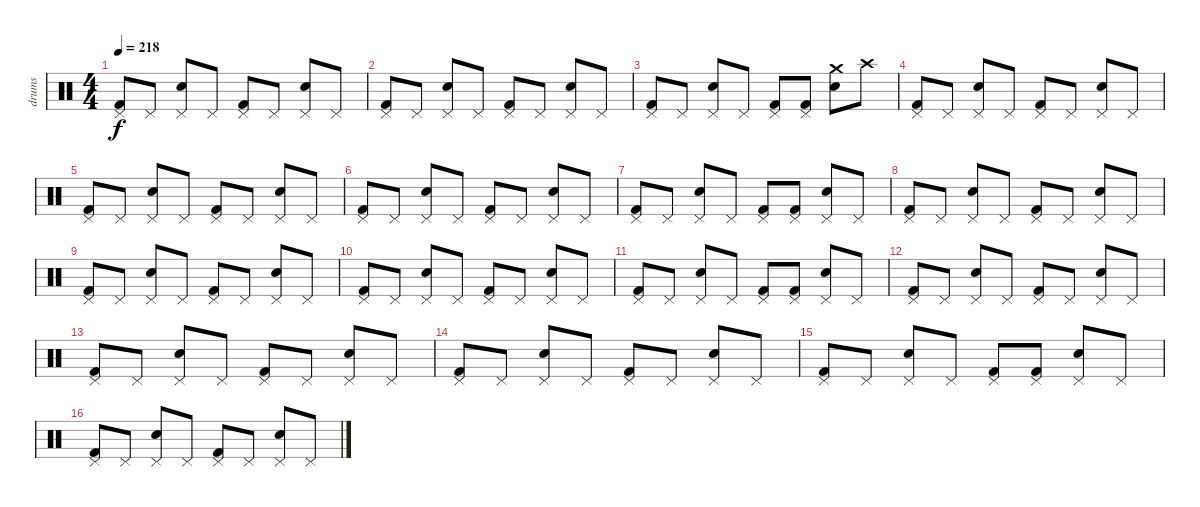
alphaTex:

\track ("drums" "drums") {instrument percussion}
\staff {score}
\articulation defaults
\ts (4 4)
\tempo 218
\clef neutral
\ks c
("Kick (hit) 2" "Pedal Hi-Hat (hit)").8{dy f} "Pedal Hi-Hat (hit)".8 ("Snare (hit) 2" "Pedal Hi-Hat (hit)").8 "Pedal Hi-Hat (hit)".8 ("Kick (hit) 2" "Pedal Hi-Hat (hit)").8 "Pedal Hi-Hat (hit)".8 ("Snare (hit) 2" "Pedal Hi-Hat (hit)").8 "Pedal Hi-Hat (hit)".8 |
("Kick (hit) 2" "Pedal Hi-Hat (hit)").8 "Pedal Hi-Hat (hit)".8 ("Snare (hit) 2" "Pedal Hi-Hat (hit)").8 "Pedal Hi-Hat (hit)".8 ("Kick (hit) 2" "Pedal Hi-Hat (hit)").8 "Pedal Hi-Hat (hit)".8 ("Snare (hit) 2" "Pedal Hi-Hat (hit)").8 "Pedal Hi-Hat (hit)".8 |
("Kick (hit) 2" "Pedal Hi-Hat (hit)").8 "Pedal Hi-Hat (hit)".8 ("Snare (hit) 2" "Pedal Hi-Hat (hit)").8 "Pedal Hi-Hat (hit)".8 ("Kick (hit) 2" "Pedal Hi-Hat (hit)").8 ("Kick (hit) 2" "Pedal Hi-Hat (hit)").8 ("Snare (hit) 2" "Crash medium (hit)").8 "Crash high (hit)".8 |
("Kick (hit) 2" "Pedal Hi-Hat (hit)").8 "Pedal Hi-Hat (hit)".8 ("Snare (hit) 2" "Pedal Hi-Hat (hit)").8 "Pedal Hi-Hat (hit)".8 ("Kick (hit) 2" "Pedal Hi-Hat (hit)").8 "Pedal Hi-Hat (hit)".8 ("Snare (hit) 2" "Pedal Hi-Hat (hit)").8 "Pedal Hi-Hat (hit)".8 |
("Kick (hit) 2" "Pedal Hi-Hat (hit)").8 "Pedal Hi-Hat (hit)".8 ("Snare (hit) 2" "Pedal Hi-Hat (hit)").8 "Pedal Hi-Hat (hit)".8 ("Kick (hit) 2" "Pedal Hi-Hat (hit)").8 "Pedal Hi-Hat (hit)".8 ("Snare (hit) 2" "Pedal Hi-Hat (hit)").8 "Pedal Hi-Hat (hit)".8 |
("Kick (hit) 2" "Pedal Hi-Hat (hit)").8 "Pedal Hi-Hat (hit)".8 ("Snare (hit) 2" "Pedal Hi-Hat (hit)").8 "Pedal Hi-Hat (hit)".8 ("Kick (hit) 2" "Pedal Hi-Hat (hit)").8 "Pedal Hi-Hat (hit)".8 ("Snare (hit) 2" "Pedal Hi-Hat (hit)").8 "Pedal Hi-Hat (hit)".8 |
("Kick (hit) 2" "Pedal Hi-Hat (hit)").8 "Pedal Hi-Hat (hit)".8 ("Snare (hit) 2" "Pedal Hi-Hat (hit)").8 "Pedal Hi-Hat (hit)".8 ("Kick (hit) 2" "Pedal Hi-Hat (hit)").8 ("Kick (hit) 2" "Pedal Hi-Hat (hit)").8 ("Snare (hit) 2" "Pedal Hi-Hat (hit)").8 "Pedal Hi-Hat (hit)".8 |
("Kick (hit) 2" "Pedal Hi-Hat (hit)").8 "Pedal Hi-Hat (hit)".8 ("Snare (hit) 2" "Pedal Hi-Hat (hit)").8 "Pedal Hi-Hat (hit)".8 ("Kick (hit) 2" "Pedal Hi-Hat (hit)").8 "Pedal Hi-Hat (hit)".8 ("Snare (hit) 2" "Pedal Hi-Hat (hit)").8 "Pedal Hi-Hat (hit)".8 |
("Kick (hit) 2" "Pedal Hi-Hat (hit)").8 "Pedal Hi-Hat (hit)".8 ("Snare (hit) 2" "Pedal Hi-Hat (hit)").8 "Pedal Hi-Hat (hit)".8 ("Kick (hit) 2" "Pedal Hi-Hat (hit)").8 "Pedal Hi-Hat (hit)".8 ("Snare (hit) 2" "Pedal Hi-Hat (hit)").8 "Pedal Hi-Hat (hit)".8 |
("Kick (hit) 2" "Pedal Hi-Hat (hit)").8 "Pedal Hi-Hat (hit)".8 ("Snare (hit) 2" "Pedal Hi-Hat (hit)").8 "Pedal Hi-Hat (hit)".8 ("Kick (hit) 2" "Pedal Hi-Hat (hit)").8 "Pedal Hi-Hat (hit)".8 ("Snare (hit) 2" "Pedal Hi-Hat (hit)").8 "Pedal Hi-Hat (hit)".8 |
("Kick (hit) 2" "Pedal Hi-Hat (hit)").8 "Pedal Hi-Hat (hit)".8 ("Snare (hit) 2" "Pedal Hi-Hat (hit)").8 "Pedal Hi-Hat (hit)".8 ("Kick (hit) 2" "Pedal Hi-Hat (hit)").8 ("Kick (hit) 2" "Pedal Hi-Hat (hit)").8 ("Snare (hit) 2" "Pedal Hi-Hat (hit)").8 "Pedal Hi-Hat (hit)".8 |
("Kick (hit) 2" "Pedal Hi-Hat (hit)").8 "Pedal Hi-Hat (hit)".8 ("Snare (hit) 2" "Pedal Hi-Hat (hit)").8 "Pedal Hi-Hat (hit)".8 ("Kick (hit) 2" "Pedal Hi-Hat (hit)").8 "Pedal Hi-Hat (hit)".8 ("Snare (hit) 2" "Pedal Hi-Hat (hit)").8 "Pedal Hi-Hat (hit)".8 |
("Kick (hit) 2" "Pedal Hi-Hat (hit)").8 "Pedal Hi-Hat (hit)".8 ("Snare (hit) 2" "Pedal Hi-Hat (hit)").8 "Pedal Hi-Hat (hit)".8 ("Kick (hit) 2" "Pedal Hi-Hat (hit)").8 "Pedal Hi-Hat (hit)".8 ("Snare (hit) 2" "Pedal Hi-Hat (hit)").8 "Pedal Hi-Hat (hit)".8 |
("Kick (hit) 2" "Pedal Hi-Hat (hit)").8 "Pedal Hi-Hat (hit)".8 ("Snare (hit) 2" "Pedal Hi-Hat (hit)").8 "Pedal Hi-Hat (hit)".8 ("Kick (hit) 2" "Pedal Hi-Hat (hit)").8 "Pedal Hi-Hat (hit)".8 ("Snare (hit) 2" "Pedal Hi-Hat (hit)").8 "Pedal Hi-Hat (hit)".8 |
("Kick (hit) 2" "Pedal Hi-Hat (hit)").8 "Pedal Hi-Hat (hit)".8 ("Snare (hit) 2" "Pedal Hi-Hat (hit)").8 "Pedal Hi-Hat (hit)".8 ("Kick (hit) 2" "Pedal Hi-Hat (hit)").8 ("Kick (hit) 2" "Pedal Hi-Hat (hit)").8 ("Snare (hit) 2" "Pedal Hi-Hat (hit)").8 "Pedal Hi-Hat (hit)".8 |
("Kick (hit) 2" "Pedal Hi-Hat (hit)").8 "Pedal Hi-Hat (hit)".8 ("Snare (hit) 2" "Pedal Hi-Hat (hit)").8 "Pedal Hi-Hat (hit)".8 ("Kick (hit) 2" "Pedal Hi-Hat (hit)").8 "Pedal Hi-Hat (hit)".8 ("Snare (hit) 2" "Pedal Hi-Hat (hit)").8 "Pedal Hi-Hat (hit)".8
